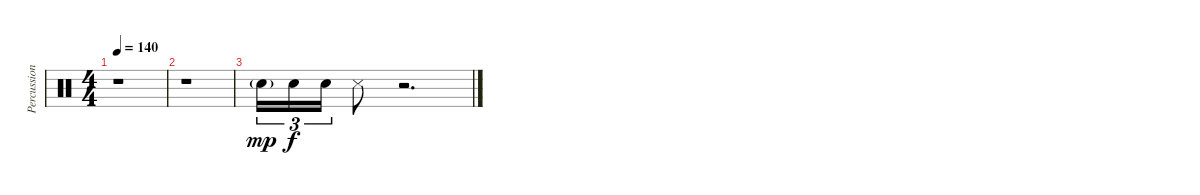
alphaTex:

\track ("Percussion" "Percussion") {instrument percussion}
\staff {score}
\articulation defaults
\ts (4 4)
\tempo 140
\clef neutral
\ks c
r.1{dy f} |
r.1 |
"Snare (hit) 2"{g}.16{tu (3 2) dy mp} "Snare (hit) 2".16{tu (3 2) dy f} "Snare (hit) 2".16{tu (3 2)} "Snare (side stick) 3".8 r.2{d}
